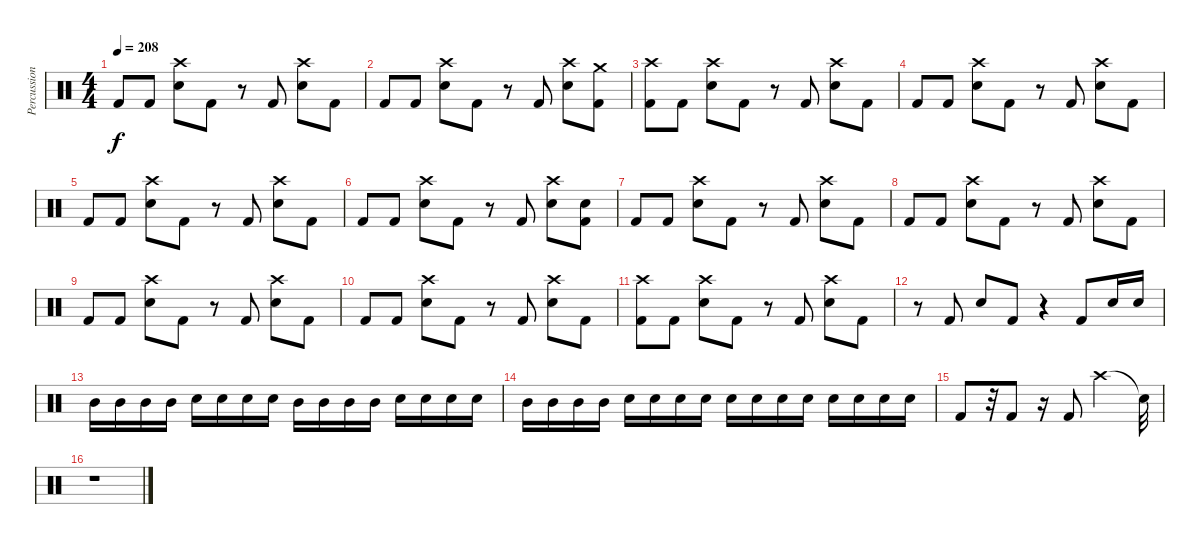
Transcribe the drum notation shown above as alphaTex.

\track ("Percussion" "Percussion") {instrument percussion}
\staff {score}
\articulation defaults
\ts (4 4)
\tempo 208
\clef neutral
\ks c "Kick (hit) 2".8{dy f} "Kick (hit) 2".8
("Crash high (hit)" "Electric Snare (hit)").8 "Kick (hit) 2".8 r.8 "Kick (hit) 2".8 ("Crash high (hit)" "Electric Snare (hit)").8 "Kick (hit) 2".8 |
"Kick (hit) 2".8 "Kick (hit) 2".8 ("Crash high (hit)" "Electric Snare (hit)").8 "Kick (hit) 2".8 r.8 "Kick (hit) 2".8 ("Crash high (hit)" "Electric Snare (hit)").8 ("Crash medium (hit)" "Kick (hit) 2").8 |
("Crash high (hit)" "Kick (hit) 2").8 "Kick (hit) 2".8 ("Crash high (hit)" "Electric Snare (hit)").8 "Kick (hit) 2".8 r.8 "Kick (hit) 2".8 ("Crash high (hit)" "Electric Snare (hit)").8 "Kick (hit) 2".8 |
"Kick (hit) 2".8 "Kick (hit) 2".8 ("Crash high (hit)" "Electric Snare (hit)").8 "Kick (hit) 2".8 r.8 "Kick (hit) 2".8 ("Crash high (hit)" "Electric Snare (hit)").8 "Kick (hit) 2".8 |
"Kick (hit) 2".8 "Kick (hit) 2".8 ("Crash high (hit)" "Electric Snare (hit)").8 "Kick (hit) 2".8 r.8 "Kick (hit) 2".8 ("Crash high (hit)" "Electric Snare (hit)").8 "Kick (hit) 2".8 |
"Kick (hit) 2".8 "Kick (hit) 2".8 ("Crash high (hit)" "Electric Snare (hit)").8 "Kick (hit) 2".8 r.8 "Kick (hit) 2".8 ("Crash high (hit)" "Electric Snare (hit)").8 ("Electric Snare (hit)" "Kick (hit) 2").8 |
"Kick (hit) 2".8 "Kick (hit) 2".8 ("Crash high (hit)" "Electric Snare (hit)").8 "Kick (hit) 2".8 r.8 "Kick (hit) 2".8 ("Crash high (hit)" "Electric Snare (hit)").8 "Kick (hit) 2".8 |
"Kick (hit) 2".8 "Kick (hit) 2".8 ("Crash high (hit)" "Electric Snare (hit)").8 "Kick (hit) 2".8 r.8 "Kick (hit) 2".8 ("Crash high (hit)" "Electric Snare (hit)").8 "Kick (hit) 2".8 |
"Kick (hit) 2".8 "Kick (hit) 2".8 ("Crash high (hit)" "Electric Snare (hit)").8 "Kick (hit) 2".8 r.8 "Kick (hit) 2".8 ("Crash high (hit)" "Electric Snare (hit)").8 "Kick (hit) 2".8 |
"Kick (hit) 2".8 "Kick (hit) 2".8 ("Crash high (hit)" "Electric Snare (hit)").8 "Kick (hit) 2".8 r.8 "Kick (hit) 2".8 ("Crash high (hit)" "Electric Snare (hit)").8 "Kick (hit) 2".8 |
("Crash high (hit)" "Kick (hit) 2").8 "Kick (hit) 2".8 ("Crash high (hit)" "Electric Snare (hit)").8 "Kick (hit) 2".8 r.8 "Kick (hit) 2".8 ("Crash high (hit)" "Electric Snare (hit)").8 "Kick (hit) 2".8 |
r.8 "Kick (hit) 2".8 "Electric Snare (hit)".8 "Kick (hit) 2".8 r.4 "Kick (hit) 2".8 "Electric Snare (hit)".16 "Electric Snare (hit)".16 |
"Mid Tom (hit)".16 "Mid Tom (hit)".16 "Mid Tom (hit)".16 "Mid Tom (hit)".16 "Electric Snare (hit)".16 "Electric Snare (hit)".16 "Electric Snare (hit)".16 "Electric Snare (hit)".16 "Mid Tom (hit)".16 "Mid Tom (hit)".16 "Mid Tom (hit)".16 "Mid Tom (hit)".16 "Electric Snare (hit)".16 "Electric Snare (hit)".16 "Electric Snare (hit)".16 "Electric Snare (hit)".16 |
"Mid Tom (hit)".16 "Mid Tom (hit)".16 "Mid Tom (hit)".16 "Mid Tom (hit)".16 "Electric Snare (hit)".16 "Electric Snare (hit)".16 "Electric Snare (hit)".16 "Electric Snare (hit)".16 "Electric Snare (hit)".16 "Electric Snare (hit)".16 "Electric Snare (hit)".16 "Electric Snare (hit)".16 "Electric Snare (hit)".16 "Electric Snare (hit)".16 "Electric Snare (hit)".16 "Electric Snare (hit)".16 |
"Kick (hit) 2".8 r.32 "Kick (hit) 2".8 r.16 "Kick (hit) 2".8 "Crash high (hit)".2 "Snare (hit)"{t}.32 |
r.1
